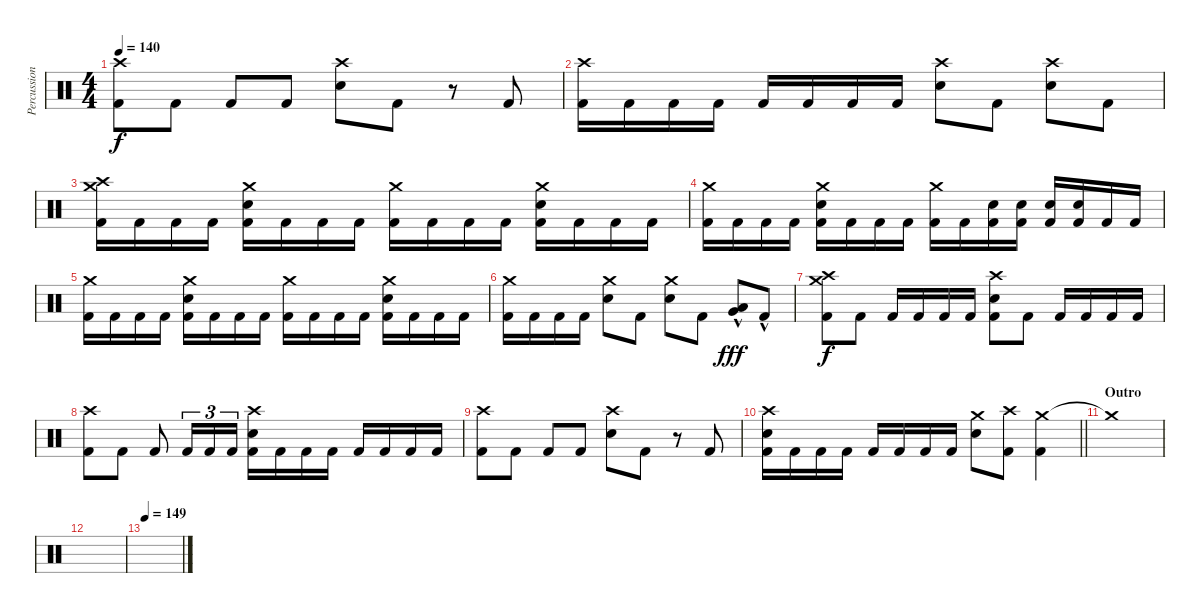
\track ("Percussion" "Percussion") {instrument percussion}
\staff {score}
\articulation defaults
\ts (4 4)
\tempo 140
\clef neutral
\ks c
("Crash high (hit)" "Kick (hit) 2").8{dy f} "Kick (hit) 2".8 "Kick (hit) 2".8 "Kick (hit) 2".8 ("Crash high (hit)" "Electric Snare (hit)").8 "Kick (hit) 2".8 r.8 "Kick (hit) 2".8 |
("Crash high (hit)" "Kick (hit) 2").16 "Kick (hit) 2".16 "Kick (hit) 2".16 "Kick (hit) 2".16 "Kick (hit) 2".16 "Kick (hit) 2".16 "Kick (hit) 2".16 "Kick (hit) 2".16 ("Crash high (hit)" "Electric Snare (hit)").8 "Kick (hit) 2".8 ("Crash high (hit)" "Electric Snare (hit)").8 "Kick (hit) 2".8 |
("Crash medium (hit)" "Crash high (hit)" "Kick (hit) 2").16 "Kick (hit) 2".16 "Kick (hit) 2".16 "Kick (hit) 2".16 ("Crash medium (hit)" "Electric Snare (hit)" "Kick (hit) 2").16 "Kick (hit) 2".16 "Kick (hit) 2".16 "Kick (hit) 2".16 ("Crash medium (hit)" "Kick (hit) 2").16 "Kick (hit) 2".16 "Kick (hit) 2".16 "Kick (hit) 2".16 ("Crash medium (hit)" "Electric Snare (hit)" "Kick (hit) 2").16 "Kick (hit) 2".16 "Kick (hit) 2".16 "Kick (hit) 2".16 |
("Crash medium (hit)" "Kick (hit) 2").16 "Kick (hit) 2".16 "Kick (hit) 2".16 "Kick (hit) 2".16 ("Crash medium (hit)" "Electric Snare (hit)" "Kick (hit) 2").16 "Kick (hit) 2".16 "Kick (hit) 2".16 "Kick (hit) 2".16 ("Crash medium (hit)" "Kick (hit) 2").16 "Kick (hit) 2".16 ("Electric Snare (hit)" "Kick (hit) 2").16 ("Electric Snare (hit)" "Kick (hit) 2").16 ("Electric Snare (hit)" "Kick (hit) 2").16 ("Electric Snare (hit)" "Kick (hit) 2").16 "Kick (hit) 2".16 "Kick (hit) 2".16 |
("Crash medium (hit)" "Kick (hit) 2").16 "Kick (hit) 2".16 "Kick (hit) 2".16 "Kick (hit) 2".16 ("Crash medium (hit)" "Electric Snare (hit)" "Kick (hit) 2").16 "Kick (hit) 2".16 "Kick (hit) 2".16 "Kick (hit) 2".16 ("Crash medium (hit)" "Kick (hit) 2").16 "Kick (hit) 2".16 "Kick (hit) 2".16 "Kick (hit) 2".16 ("Crash medium (hit)" "Electric Snare (hit)" "Kick (hit) 2").16 "Kick (hit) 2".16 "Kick (hit) 2".16 "Kick (hit) 2".16 |
("Crash medium (hit)" "Kick (hit) 2").16 "Kick (hit) 2".16 "Kick (hit) 2".16 "Kick (hit) 2".16 ("Crash medium (hit)" "Electric Snare (hit)").8 "Kick (hit) 2".8 ("Crash medium (hit)" "Electric Snare (hit)").8 "Kick (hit) 2".8 ("Very Low Tom (hit)"{hac} "Low Floor Tom (hit)"{hac}).8{dy fff} "Kick (hit) 2"{hac}.8 |
("Crash medium (hit)" "Crash high (hit)" "Kick (hit) 2").8{dy f} "Kick (hit) 2".8 "Kick (hit) 2".16 "Kick (hit) 2".16 "Kick (hit) 2".16 "Kick (hit) 2".16 ("Crash high (hit)" "Electric Snare (hit)" "Kick (hit) 2").8 "Kick (hit) 2".8 "Kick (hit) 2".16 "Kick (hit) 2".16 "Kick (hit) 2".16 "Kick (hit) 2".16 |
("Crash high (hit)" "Kick (hit) 2").8 "Kick (hit) 2".8 "Kick (hit) 2".8 "Kick (hit) 2".16{tu (3 2)} "Kick (hit) 2".16{tu (3 2)} "Kick (hit) 2".16{tu (3 2)} ("Crash high (hit)" "Electric Snare (hit)" "Kick (hit) 2").16 "Kick (hit) 2".16 "Kick (hit) 2".16 "Kick (hit) 2".16 "Kick (hit) 2".16 "Kick (hit) 2".16 "Kick (hit) 2".16 "Kick (hit) 2".16 |
("Crash high (hit)" "Kick (hit) 2").8 "Kick (hit) 2".8 "Kick (hit) 2".8 "Kick (hit) 2".8 ("Crash high (hit)" "Electric Snare (hit)").8 "Kick (hit) 2".8 r.8 "Kick (hit) 2".8 |
\barLineRight lightlight
("Crash high (hit)" "Electric Snare (hit)" "Kick (hit) 2").16 "Kick (hit) 2".16 "Kick (hit) 2".16 "Kick (hit) 2".16 "Kick (hit) 2".16 "Kick (hit) 2".16 "Kick (hit) 2".16 "Kick (hit) 2".16 ("Crash medium (hit)" "Electric Snare (hit)").8 ("Crash high (hit)" "Kick (hit) 2").8 ("Crash medium (hit)" "Kick (hit) 2").4{volume 5} |
\section ("" "Outro")
"Crash medium (hit)"{t}.1 |
|
\tempo 149
